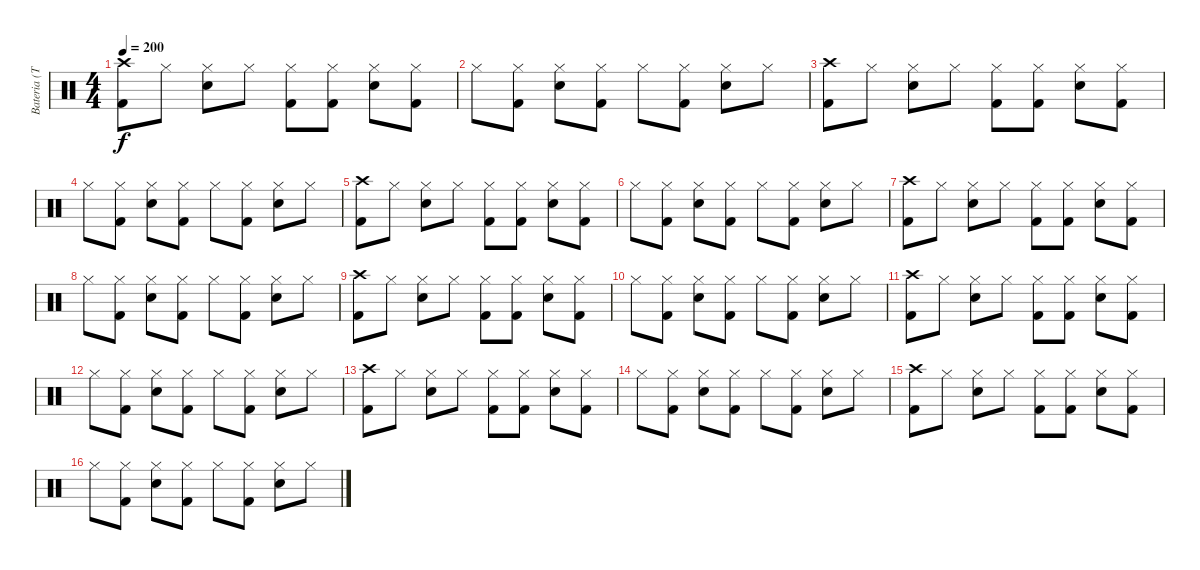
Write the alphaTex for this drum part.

\track ("Bateria (Tré)" "Bateria (T") {instrument percussion}
\staff {score}
\articulation defaults
\ts (4 4)
\tempo 200
\clef neutral
\ks c
("Crash high (hit)" "Kick (hit) 2").8{dy f} "Hi-Hat (closed)".8 ("Hi-Hat (closed)" "Electric Snare (hit)").8 "Hi-Hat (closed)".8 ("Hi-Hat (closed)" "Kick (hit) 2").8 ("Hi-Hat (closed)" "Kick (hit) 2").8 ("Hi-Hat (closed)" "Electric Snare (hit)").8 ("Hi-Hat (closed)" "Kick (hit) 2").8 |
"Hi-Hat (closed)".8 ("Hi-Hat (closed)" "Kick (hit) 2").8 ("Hi-Hat (closed)" "Electric Snare (hit)").8 ("Hi-Hat (closed)" "Kick (hit) 2").8 "Hi-Hat (closed)".8 ("Hi-Hat (closed)" "Kick (hit) 2").8 ("Hi-Hat (closed)" "Electric Snare (hit)").8 "Hi-Hat (closed)".8 |
("Crash high (hit)" "Kick (hit) 2").8 "Hi-Hat (closed)".8 ("Hi-Hat (closed)" "Electric Snare (hit)").8 "Hi-Hat (closed)".8 ("Hi-Hat (closed)" "Kick (hit) 2").8 ("Hi-Hat (closed)" "Kick (hit) 2").8 ("Hi-Hat (closed)" "Electric Snare (hit)").8 ("Hi-Hat (closed)" "Kick (hit) 2").8 |
"Hi-Hat (closed)".8 ("Hi-Hat (closed)" "Kick (hit) 2").8 ("Hi-Hat (closed)" "Electric Snare (hit)").8 ("Hi-Hat (closed)" "Kick (hit) 2").8 "Hi-Hat (closed)".8 ("Hi-Hat (closed)" "Kick (hit) 2").8 ("Hi-Hat (closed)" "Electric Snare (hit)").8 "Hi-Hat (closed)".8 |
("Crash high (hit)" "Kick (hit) 2").8 "Hi-Hat (closed)".8 ("Hi-Hat (closed)" "Electric Snare (hit)").8 "Hi-Hat (closed)".8 ("Hi-Hat (closed)" "Kick (hit) 2").8 ("Hi-Hat (closed)" "Kick (hit) 2").8 ("Hi-Hat (closed)" "Electric Snare (hit)").8 ("Hi-Hat (closed)" "Kick (hit) 2").8 |
"Hi-Hat (closed)".8 ("Hi-Hat (closed)" "Kick (hit) 2").8 ("Hi-Hat (closed)" "Electric Snare (hit)").8 ("Hi-Hat (closed)" "Kick (hit) 2").8 "Hi-Hat (closed)".8 ("Hi-Hat (closed)" "Kick (hit) 2").8 ("Hi-Hat (closed)" "Electric Snare (hit)").8 "Hi-Hat (closed)".8 |
("Crash high (hit)" "Kick (hit) 2").8 "Hi-Hat (closed)".8 ("Hi-Hat (closed)" "Electric Snare (hit)").8 "Hi-Hat (closed)".8 ("Hi-Hat (closed)" "Kick (hit) 2").8 ("Hi-Hat (closed)" "Kick (hit) 2").8 ("Hi-Hat (closed)" "Electric Snare (hit)").8 ("Hi-Hat (closed)" "Kick (hit) 2").8 |
"Hi-Hat (closed)".8 ("Hi-Hat (closed)" "Kick (hit) 2").8 ("Hi-Hat (closed)" "Electric Snare (hit)").8 ("Hi-Hat (closed)" "Kick (hit) 2").8 "Hi-Hat (closed)".8 ("Hi-Hat (closed)" "Kick (hit) 2").8 ("Hi-Hat (closed)" "Electric Snare (hit)").8 "Hi-Hat (closed)".8 |
("Crash high (hit)" "Kick (hit) 2").8 "Hi-Hat (closed)".8 ("Hi-Hat (closed)" "Electric Snare (hit)").8 "Hi-Hat (closed)".8 ("Hi-Hat (closed)" "Kick (hit) 2").8 ("Hi-Hat (closed)" "Kick (hit) 2").8 ("Hi-Hat (closed)" "Electric Snare (hit)").8 ("Hi-Hat (closed)" "Kick (hit) 2").8 |
"Hi-Hat (closed)".8 ("Hi-Hat (closed)" "Kick (hit) 2").8 ("Hi-Hat (closed)" "Electric Snare (hit)").8 ("Hi-Hat (closed)" "Kick (hit) 2").8 "Hi-Hat (closed)".8 ("Hi-Hat (closed)" "Kick (hit) 2").8 ("Hi-Hat (closed)" "Electric Snare (hit)").8 "Hi-Hat (closed)".8 |
("Crash high (hit)" "Kick (hit) 2").8 "Hi-Hat (closed)".8 ("Hi-Hat (closed)" "Electric Snare (hit)").8 "Hi-Hat (closed)".8 ("Hi-Hat (closed)" "Kick (hit) 2").8 ("Hi-Hat (closed)" "Kick (hit) 2").8 ("Hi-Hat (closed)" "Electric Snare (hit)").8 ("Hi-Hat (closed)" "Kick (hit) 2").8 |
"Hi-Hat (closed)".8 ("Hi-Hat (closed)" "Kick (hit) 2").8 ("Hi-Hat (closed)" "Electric Snare (hit)").8 ("Hi-Hat (closed)" "Kick (hit) 2").8 "Hi-Hat (closed)".8 ("Hi-Hat (closed)" "Kick (hit) 2").8 ("Hi-Hat (closed)" "Electric Snare (hit)").8 "Hi-Hat (closed)".8 |
("Crash high (hit)" "Kick (hit) 2").8 "Hi-Hat (closed)".8 ("Hi-Hat (closed)" "Electric Snare (hit)").8 "Hi-Hat (closed)".8 ("Hi-Hat (closed)" "Kick (hit) 2").8 ("Hi-Hat (closed)" "Kick (hit) 2").8 ("Hi-Hat (closed)" "Electric Snare (hit)").8 ("Hi-Hat (closed)" "Kick (hit) 2").8 |
"Hi-Hat (closed)".8 ("Hi-Hat (closed)" "Kick (hit) 2").8 ("Hi-Hat (closed)" "Electric Snare (hit)").8 ("Hi-Hat (closed)" "Kick (hit) 2").8 "Hi-Hat (closed)".8 ("Hi-Hat (closed)" "Kick (hit) 2").8 ("Hi-Hat (closed)" "Electric Snare (hit)").8 "Hi-Hat (closed)".8 |
("Crash high (hit)" "Kick (hit) 2").8 "Hi-Hat (closed)".8 ("Hi-Hat (closed)" "Electric Snare (hit)").8 "Hi-Hat (closed)".8 ("Hi-Hat (closed)" "Kick (hit) 2").8 ("Hi-Hat (closed)" "Kick (hit) 2").8 ("Hi-Hat (closed)" "Electric Snare (hit)").8 ("Hi-Hat (closed)" "Kick (hit) 2").8 |
"Hi-Hat (closed)".8 ("Hi-Hat (closed)" "Kick (hit) 2").8 ("Hi-Hat (closed)" "Electric Snare (hit)").8 ("Hi-Hat (closed)" "Kick (hit) 2").8 "Hi-Hat (closed)".8 ("Hi-Hat (closed)" "Kick (hit) 2").8 ("Hi-Hat (closed)" "Electric Snare (hit)").8 "Hi-Hat (closed)".8
